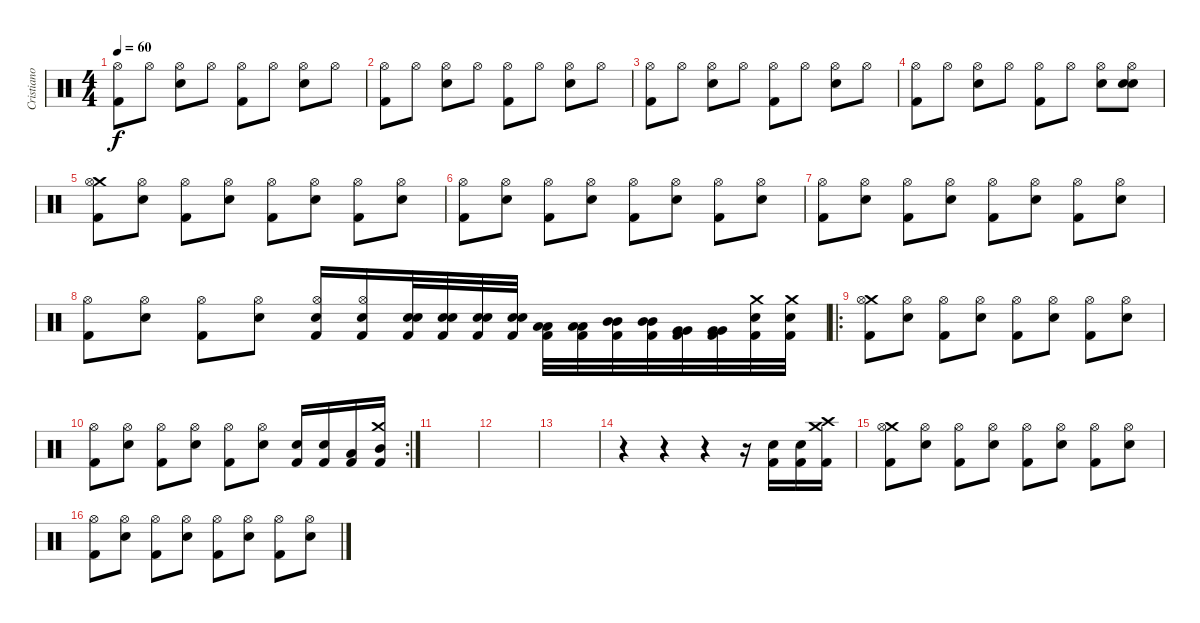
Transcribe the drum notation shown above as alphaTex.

\track ("Cristiano Mozzati" "Cristiano ") {instrument percussion}
\staff {score}
\articulation defaults
\ts (4 4)
\tempo 60
\clef neutral
\ks c
("Kick (hit) 2" "Hi-Hat (open)").8{dy f} "Hi-Hat (open)".8 ("Electric Snare (hit)" "Hi-Hat (open)").8 "Hi-Hat (open)".8 ("Kick (hit) 2" "Hi-Hat (open)").8 "Hi-Hat (open)".8 ("Electric Snare (hit)" "Hi-Hat (open)").8 "Hi-Hat (open)".8 |
("Kick (hit) 2" "Hi-Hat (open)").8 "Hi-Hat (open)".8 ("Electric Snare (hit)" "Hi-Hat (open)").8 "Hi-Hat (open)".8 ("Kick (hit) 2" "Hi-Hat (open)").8 "Hi-Hat (open)".8 ("Electric Snare (hit)" "Hi-Hat (open)").8 "Hi-Hat (open)".8 |
("Kick (hit) 2" "Hi-Hat (open)").8 "Hi-Hat (open)".8 ("Electric Snare (hit)" "Hi-Hat (open)").8 "Hi-Hat (open)".8 ("Kick (hit) 2" "Hi-Hat (open)").8 "Hi-Hat (open)".8 ("Electric Snare (hit)" "Hi-Hat (open)").8 "Hi-Hat (open)".8 |
("Kick (hit) 2" "Hi-Hat (open)").8 "Hi-Hat (open)".8 ("Electric Snare (hit)" "Hi-Hat (open)").8 "Hi-Hat (open)".8 ("Kick (hit) 2" "Hi-Hat (open)").8 "Hi-Hat (open)".8 ("Electric Snare (hit)" "Hi-Hat (open)").8 ("Electric Snare (hit)" "Electric Snare (hit)" "Hi-Hat (open)").8 |
("Crash medium (hit)" "Kick (hit) 2" "Hi-Hat (open)").8 ("Electric Snare (hit)" "Hi-Hat (open)").8 ("Kick (hit) 2" "Hi-Hat (open)").8 ("Electric Snare (hit)" "Hi-Hat (open)").8 ("Kick (hit) 2" "Hi-Hat (open)").8 ("Electric Snare (hit)" "Hi-Hat (open)").8 ("Kick (hit) 2" "Hi-Hat (open)").8 ("Electric Snare (hit)" "Hi-Hat (open)").8 |
("Kick (hit) 2" "Hi-Hat (open)").8 ("Electric Snare (hit)" "Hi-Hat (open)").8 ("Kick (hit) 2" "Hi-Hat (open)").8 ("Electric Snare (hit)" "Hi-Hat (open)").8 ("Kick (hit) 2" "Hi-Hat (open)").8 ("Electric Snare (hit)" "Hi-Hat (open)").8 ("Kick (hit) 2" "Hi-Hat (open)").8 ("Electric Snare (hit)" "Hi-Hat (open)").8 |
("Kick (hit) 2" "Hi-Hat (open)").8 ("Electric Snare (hit)" "Hi-Hat (open)").8 ("Kick (hit) 2" "Hi-Hat (open)").8 ("Electric Snare (hit)" "Hi-Hat (open)").8 ("Kick (hit) 2" "Hi-Hat (open)").8 ("Electric Snare (hit)" "Hi-Hat (open)").8 ("Kick (hit) 2" "Hi-Hat (open)").8 ("Electric Snare (hit)" "Hi-Hat (open)").8 |
("Kick (hit) 2" "Hi-Hat (open)").8 ("Electric Snare (hit)" "Hi-Hat (open)").8 ("Kick (hit) 2" "Hi-Hat (open)").8 ("Electric Snare (hit)" "Hi-Hat (open)").8 ("Kick (hit) 2" "Electric Snare (hit)" "Hi-Hat (open)").16 ("Kick (hit) 2" "Electric Snare (hit)" "Hi-Hat (open)").16 ("Electric Snare (hit)" "Electric Snare (hit)" "Kick (hit) 2").32 ("Electric Snare (hit)" "Electric Snare (hit)" "Kick (hit) 2").32 ("Electric Snare (hit)" "Electric Snare (hit)" "Kick (hit) 2").32 ("Electric Snare (hit)" "Electric Snare (hit)" "Kick (hit) 2").32 ("Low Tom (hit)" "Low Tom (hit)" "Kick (hit) 2").32 ("Low Tom (hit)" "Low Tom (hit)" "Kick (hit) 2").32 ("Mid Tom (hit)" "Mid Tom (hit)" "Kick (hit) 2").32 ("Mid Tom (hit)" "Mid Tom (hit)" "Kick (hit) 2").32 ("Very Low Tom (hit)" "Very Low Tom (hit)" "Kick (hit) 2").32 ("Very Low Tom (hit)" "Very Low Tom (hit)" "Kick (hit) 2").32 ("Electric Snare (hit)" "Crash medium (hit)" "Kick (hit) 2").32 ("Crash medium (hit)" "Electric Snare (hit)" "Kick (hit) 2").32 |
\ro
("Crash medium (hit)" "Kick (hit) 2" "Hi-Hat (open)").8 ("Electric Snare (hit)" "Hi-Hat (open)").8 ("Kick (hit) 2" "Hi-Hat (open)").8 ("Electric Snare (hit)" "Hi-Hat (open)").8 ("Kick (hit) 2" "Hi-Hat (open)").8 ("Electric Snare (hit)" "Hi-Hat (open)").8 ("Kick (hit) 2" "Hi-Hat (open)").8 ("Electric Snare (hit)" "Hi-Hat (open)").8 |
\rc 2
("Kick (hit) 2" "Hi-Hat (open)").8 ("Electric Snare (hit)" "Hi-Hat (open)").8 ("Kick (hit) 2" "Hi-Hat (open)").8 ("Electric Snare (hit)" "Hi-Hat (open)").8 ("Kick (hit) 2" "Hi-Hat (open)").8 ("Electric Snare (hit)" "Hi-Hat (open)").8 ("Electric Snare (hit)" "Kick (hit) 2").16 ("Electric Snare (hit)" "Kick (hit) 2").16 ("Low Tom (hit)" "Kick (hit) 2").16 ("Crash medium (hit)" "Mid Tom (hit)" "Kick (hit) 2").16 |
|
|
|
r.4 r.4 r.4 r.16 ("Electric Snare (hit)" "Kick (hit) 2").16 ("Electric Snare (hit)" "Kick (hit) 2").16 ("Crash high (hit)" "Crash medium (hit)" "Kick (hit) 2").16 |
("Crash medium (hit)" "Kick (hit) 2" "Hi-Hat (open)").8 ("Electric Snare (hit)" "Hi-Hat (open)").8 ("Kick (hit) 2" "Hi-Hat (open)").8 ("Electric Snare (hit)" "Hi-Hat (open)").8 ("Kick (hit) 2" "Hi-Hat (open)").8 ("Electric Snare (hit)" "Hi-Hat (open)").8 ("Kick (hit) 2" "Hi-Hat (open)").8 ("Electric Snare (hit)" "Hi-Hat (open)").8 |
("Kick (hit) 2" "Hi-Hat (open)").8 ("Electric Snare (hit)" "Hi-Hat (open)").8 ("Kick (hit) 2" "Hi-Hat (open)").8 ("Electric Snare (hit)" "Hi-Hat (open)").8 ("Kick (hit) 2" "Hi-Hat (open)").8 ("Electric Snare (hit)" "Hi-Hat (open)").8 ("Kick (hit) 2" "Hi-Hat (open)").8 ("Electric Snare (hit)" "Hi-Hat (open)").8
